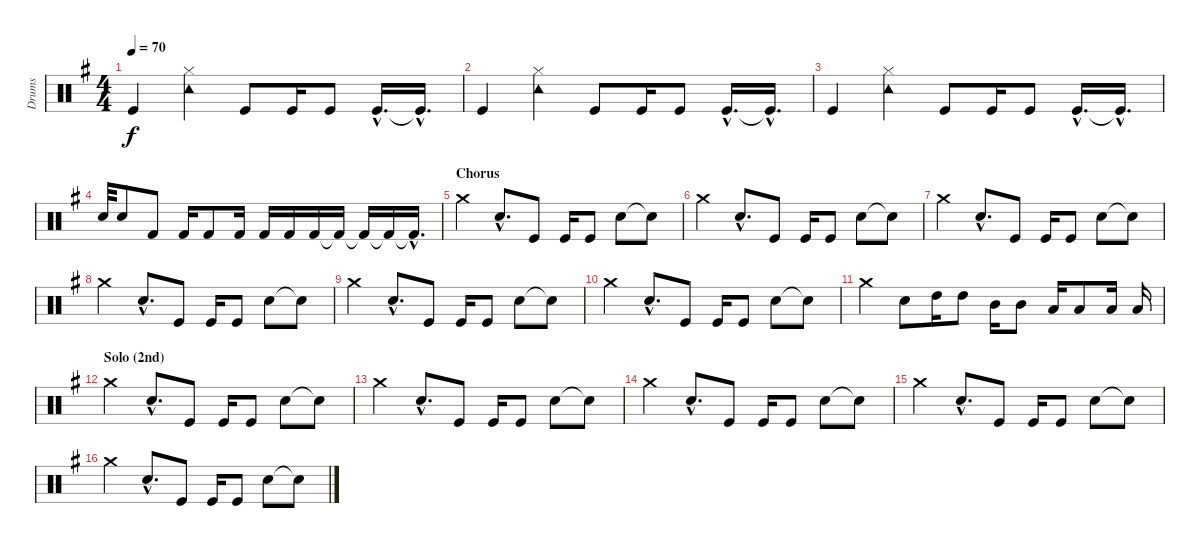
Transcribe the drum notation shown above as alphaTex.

\track ("Drums" "Drums") {instrument percussion}
\staff {score}
\articulation defaults
\ts (4 4)
\tempo 70
\clef neutral
\ks g "Kick (hit)".4{dy f}
("Hi-Hat (closed)" "Tambourine (hit)").4 "Kick (hit)".8 "Kick (hit)".16 "Kick (hit)".8 "Kick (hit)"{hac}.16{d} "Kick (hit)"{hac t}.16{d} |
"Kick (hit)".4 ("Hi-Hat (closed)" "Tambourine (hit)").4 "Kick (hit)".8 "Kick (hit)".16 "Kick (hit)".8 "Kick (hit)"{hac}.16{d} "Kick (hit)"{hac t}.16{d} |
"Kick (hit)".4 ("Hi-Hat (closed)" "Tambourine (hit)").4 "Kick (hit)".8 "Kick (hit)".16 "Kick (hit)".8 "Kick (hit)"{hac}.16{d} "Kick (hit)"{hac t}.16{d} |
"Snare (hit) 2".32 "Snare (hit) 2".8 "Kick (hit) 2".8 "Kick (hit) 2".16 "Kick (hit) 2".8 "Kick (hit) 2".16 "Kick (hit) 2".16 "Kick (hit) 2".16 "Kick (hit) 2".16 "Kick (hit) 2"{t}.16 "Kick (hit) 2"{t}.16 "Kick (hit) 2"{t}.16 "Kick (hit) 2"{hac t}.16{d} |
\section ("" "Chorus")
"Crash medium (hit)".4 "Snare (hit) 2"{hac}.8{d} "Kick (hit)".8 "Kick (hit)".16 "Kick (hit)".8 "Snare (hit) 2".8 "Snare (hit) 2"{t}.8 |
"Crash medium (hit)".4 "Snare (hit) 2"{hac}.8{d} "Kick (hit)".8 "Kick (hit)".16 "Kick (hit)".8 "Snare (hit) 2".8 "Snare (hit) 2"{t}.8 |
"Crash medium (hit)".4 "Snare (hit) 2"{hac}.8{d} "Kick (hit)".8 "Kick (hit)".16 "Kick (hit)".8 "Snare (hit) 2".8 "Snare (hit) 2"{t}.8 |
"Crash medium (hit)".4 "Snare (hit) 2"{hac}.8{d} "Kick (hit)".8 "Kick (hit)".16 "Kick (hit)".8 "Snare (hit) 2".8 "Snare (hit) 2"{t}.8 |
"Crash medium (hit)".4 "Snare (hit) 2"{hac}.8{d} "Kick (hit)".8 "Kick (hit)".16 "Kick (hit)".8 "Snare (hit) 2".8 "Snare (hit) 2"{t}.8 |
"Crash medium (hit)".4 "Snare (hit) 2"{hac}.8{d} "Kick (hit)".8 "Kick (hit)".16 "Kick (hit)".8 "Snare (hit) 2".8 "Snare (hit) 2"{t}.8 |
"Crash medium (hit)".4 "Snare (hit) 2".8 "High Tom (hit)".16 "High Tom (hit)".8 "Mid Tom (hit)".16 "Mid Tom (hit)".8 "Low Tom (hit)".16 "Low Tom (hit)".8 "Low Tom (hit)".16 "Low Tom (hit)".16 |
\section ("" "Solo (2nd)")
"Crash medium (hit)".4 "Snare (hit) 2"{hac}.8{d} "Kick (hit)".8 "Kick (hit)".16 "Kick (hit)".8 "Snare (hit) 2".8 "Snare (hit) 2"{t}.8 |
"Crash medium (hit)".4 "Snare (hit) 2"{hac}.8{d} "Kick (hit)".8 "Kick (hit)".16 "Kick (hit)".8 "Snare (hit) 2".8 "Snare (hit) 2"{t}.8 |
"Crash medium (hit)".4 "Snare (hit) 2"{hac}.8{d} "Kick (hit)".8 "Kick (hit)".16 "Kick (hit)".8 "Snare (hit) 2".8 "Snare (hit) 2"{t}.8 |
"Crash medium (hit)".4 "Snare (hit) 2"{hac}.8{d} "Kick (hit)".8 "Kick (hit)".16 "Kick (hit)".8 "Snare (hit) 2".8 "Snare (hit) 2"{t}.8 |
"Crash medium (hit)".4 "Snare (hit) 2"{hac}.8{d} "Kick (hit)".8 "Kick (hit)".16 "Kick (hit)".8 "Snare (hit) 2".8 "Snare (hit) 2"{t}.8
